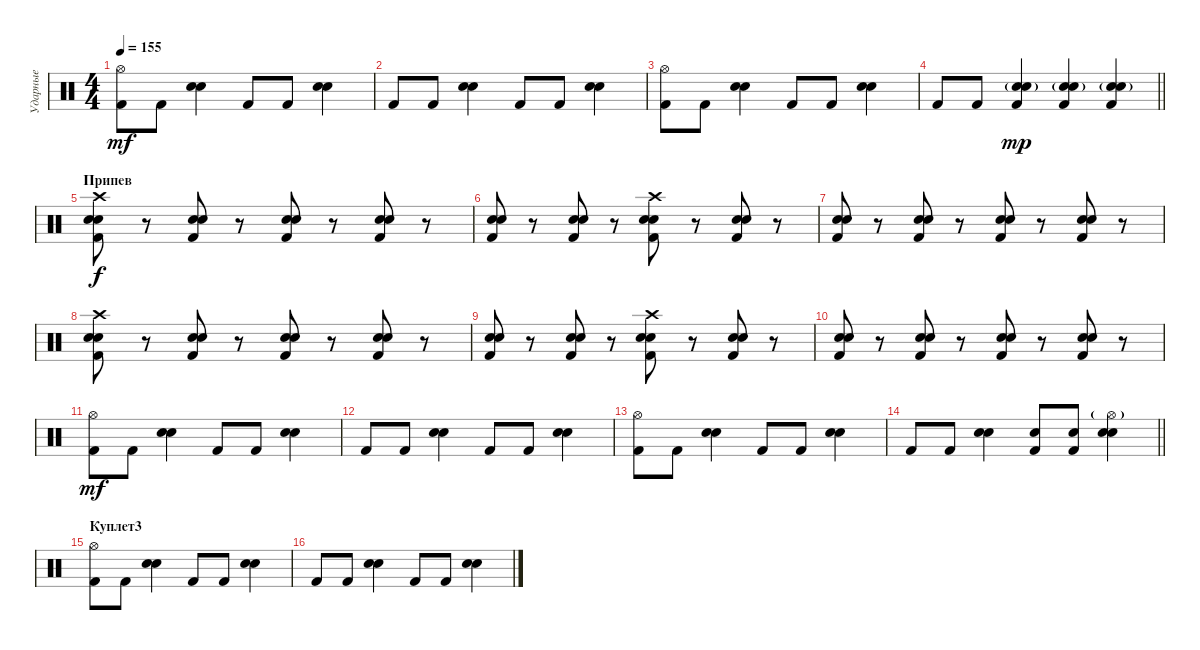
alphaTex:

\track ("Ударные" "Ударные") {instrument percussion}
\staff {score}
\articulation defaults
\ts (4 4)
\tempo 155
\clef neutral
\ks c
("Hi-Hat (open)" "Kick (hit) 2").8{dy mf} "Kick (hit) 2".8 ("Electric Snare (hit)" "Snare (hit) 2").4 "Kick (hit) 2".8 "Kick (hit) 2".8 ("Electric Snare (hit)" "Snare (hit) 2").4 |
"Kick (hit) 2".8 "Kick (hit) 2".8 ("Electric Snare (hit)" "Snare (hit) 2").4 "Kick (hit) 2".8 "Kick (hit) 2".8 ("Electric Snare (hit)" "Snare (hit) 2").4 |
("Hi-Hat (open)" "Kick (hit) 2").8 "Kick (hit) 2".8 ("Electric Snare (hit)" "Snare (hit) 2").4 "Kick (hit) 2".8 "Kick (hit) 2".8 ("Electric Snare (hit)" "Snare (hit) 2").4 |
\barLineRight lightlight "Kick (hit) 2".8 "Kick (hit) 2".8
("Electric Snare (hit)" "Kick (hit) 2" "Snare (hit) 2"{g}).4{dy mp} ("Electric Snare (hit)" "Kick (hit) 2" "Snare (hit) 2"{g}).4 ("Electric Snare (hit)" "Kick (hit) 2" "Snare (hit) 2"{g}).4 |
\section ("" "Припев")
("Snare (hit) 2" "Electric Snare (hit)" "Crash high (hit)" "Kick (hit) 2").8{dy f} r.8 ("Snare (hit) 2" "Electric Snare (hit)" "Kick (hit) 2").8 r.8 ("Snare (hit) 2" "Electric Snare (hit)" "Kick (hit) 2").8 r.8 ("Snare (hit) 2" "Electric Snare (hit)" "Kick (hit) 2").8 r.8 |
("Snare (hit) 2" "Electric Snare (hit)" "Kick (hit) 2").8 r.8 ("Snare (hit) 2" "Electric Snare (hit)" "Kick (hit) 2").8 r.8 ("Snare (hit) 2" "Electric Snare (hit)" "Crash high (hit)" "Kick (hit) 2").8 r.8 ("Snare (hit) 2" "Electric Snare (hit)" "Kick (hit) 2").8 r.8 |
("Snare (hit) 2" "Electric Snare (hit)" "Kick (hit) 2").8 r.8 ("Snare (hit) 2" "Electric Snare (hit)" "Kick (hit) 2").8 r.8 ("Snare (hit) 2" "Electric Snare (hit)" "Kick (hit) 2").8 r.8 ("Snare (hit) 2" "Electric Snare (hit)" "Kick (hit) 2").8 r.8 |
("Snare (hit) 2" "Electric Snare (hit)" "Crash high (hit)" "Kick (hit) 2").8 r.8 ("Snare (hit) 2" "Electric Snare (hit)" "Kick (hit) 2").8 r.8 ("Snare (hit) 2" "Electric Snare (hit)" "Kick (hit) 2").8 r.8 ("Snare (hit) 2" "Electric Snare (hit)" "Kick (hit) 2").8 r.8 |
("Snare (hit) 2" "Electric Snare (hit)" "Kick (hit) 2").8 r.8 ("Snare (hit) 2" "Electric Snare (hit)" "Kick (hit) 2").8 r.8 ("Snare (hit) 2" "Electric Snare (hit)" "Crash high (hit)" "Kick (hit) 2").8 r.8 ("Snare (hit) 2" "Electric Snare (hit)" "Kick (hit) 2").8 r.8 |
("Snare (hit) 2" "Electric Snare (hit)" "Kick (hit) 2").8 r.8 ("Snare (hit) 2" "Electric Snare (hit)" "Kick (hit) 2").8 r.8 ("Snare (hit) 2" "Electric Snare (hit)" "Kick (hit) 2").8 r.8 ("Snare (hit) 2" "Electric Snare (hit)" "Kick (hit) 2").8 r.8 |
("Hi-Hat (open)" "Kick (hit) 2").8{dy mf} "Kick (hit) 2".8 ("Electric Snare (hit)" "Snare (hit) 2").4 "Kick (hit) 2".8 "Kick (hit) 2".8 ("Electric Snare (hit)" "Snare (hit) 2").4 |
"Kick (hit) 2".8 "Kick (hit) 2".8 ("Electric Snare (hit)" "Snare (hit) 2").4 "Kick (hit) 2".8 "Kick (hit) 2".8 ("Electric Snare (hit)" "Snare (hit) 2").4 |
("Hi-Hat (open)" "Kick (hit) 2").8 "Kick (hit) 2".8 ("Electric Snare (hit)" "Snare (hit) 2").4 "Kick (hit) 2".8 "Kick (hit) 2".8 ("Electric Snare (hit)" "Snare (hit) 2").4 |
\barLineRight lightlight "Kick (hit) 2".8 "Kick (hit) 2".8
("Electric Snare (hit)" "Snare (hit) 2").4 ("Electric Snare (hit)" "Kick (hit) 2").8 ("Electric Snare (hit)" "Kick (hit) 2").8 ("Electric Snare (hit)" "Hi-Hat (open)"{g} "Snare (hit) 2").4 |
\section ("" "Куплет3")
("Hi-Hat (open)" "Kick (hit) 2").8 "Kick (hit) 2".8 ("Electric Snare (hit)" "Snare (hit) 2").4 "Kick (hit) 2".8 "Kick (hit) 2".8 ("Electric Snare (hit)" "Snare (hit) 2").4 |
"Kick (hit) 2".8 "Kick (hit) 2".8 ("Electric Snare (hit)" "Snare (hit) 2").4 "Kick (hit) 2".8 "Kick (hit) 2".8 ("Electric Snare (hit)" "Snare (hit) 2").4
